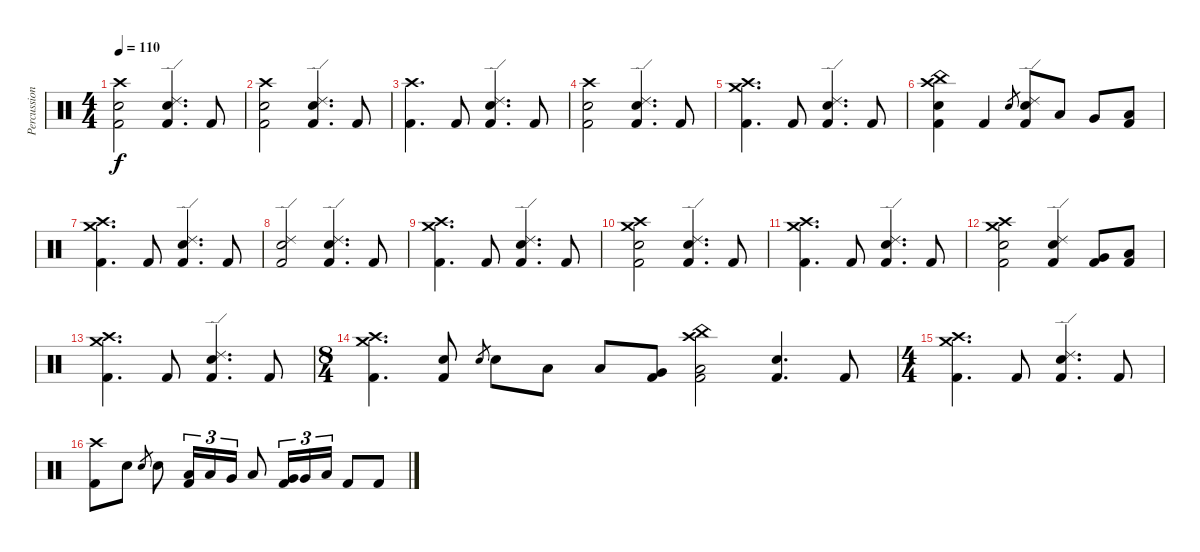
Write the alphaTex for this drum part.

\track ("Percussion" "Percussion") {instrument percussion}
\staff {score}
\articulation defaults
\ts (4 4)
\tempo 110
\clef neutral
\ks c
("Crash high (hit)" "Snare (hit) 2" "Kick (hit) 2").2{dy f} ("Ride (edge) 2" "Electric Snare (hit)" "Kick (hit) 2").4{d} "Kick (hit) 2".8 |
("Crash high (hit)" "Snare (hit) 2" "Kick (hit) 2").2 ("Ride (edge) 2" "Electric Snare (hit)" "Kick (hit) 2").4{d} "Kick (hit) 2".8 |
("Crash high (hit)" "Kick (hit) 2").4{d} "Kick (hit) 2".8 ("Ride (edge) 2" "Electric Snare (hit)" "Kick (hit) 2").4{d} "Kick (hit) 2".8 |
("Crash high (hit)" "Snare (hit) 2" "Kick (hit) 2").2 ("Ride (edge) 2" "Electric Snare (hit)" "Kick (hit) 2").4{d} "Kick (hit) 2".8 |
("Crash high (hit)" "Crash medium (hit)" "Kick (hit) 2").4{d} "Kick (hit) 2".8 ("Ride (edge) 2" "Electric Snare (hit)" "Kick (hit) 2").4{d} "Kick (hit) 2".8 |
("Crash high (hit)" "China (hit)" "Snare (hit) 2" "Kick (hit) 2").4 "Kick (hit) 2".4 "Electric Snare (hit)".8{gr} ("Ride (edge) 2" "Electric Snare (hit)" "Kick (hit) 2").8 "Low Tom (hit)".8 "Very Low Tom (hit)".8 ("Low Floor Tom (hit)" "Kick (hit) 2").8 |
("Crash high (hit)" "Crash medium (hit)" "Kick (hit) 2").4{d} "Kick (hit) 2".8 ("Ride (edge) 2" "Electric Snare (hit)" "Kick (hit) 2").4{d} "Kick (hit) 2".8 |
("Ride (edge) 2" "Electric Snare (hit)" "Kick (hit) 2").2 ("Ride (edge) 2" "Electric Snare (hit)" "Kick (hit) 2").4{d} "Kick (hit) 2".8 |
("Crash high (hit)" "Crash medium (hit)" "Kick (hit) 2").4{d} "Kick (hit) 2".8 ("Ride (edge) 2" "Electric Snare (hit)" "Kick (hit) 2").4{d} "Kick (hit) 2".8 |
("Crash high (hit)" "Crash medium (hit)" "Snare (hit) 2" "Kick (hit) 2").2 ("Ride (edge) 2" "Electric Snare (hit)" "Kick (hit) 2").4{d} "Kick (hit) 2".8 |
("Crash high (hit)" "Crash medium (hit)" "Kick (hit) 2").4{d} "Kick (hit) 2".8 ("Ride (edge) 2" "Electric Snare (hit)" "Kick (hit) 2").4{d} "Kick (hit) 2".8 |
("Crash high (hit)" "Crash medium (hit)" "Snare (hit) 2" "Kick (hit) 2").2 ("Ride (edge) 2" "Electric Snare (hit)" "Kick (hit) 2").4 ("Very Low Tom (hit)" "Kick (hit) 2").8 ("Low Floor Tom (hit)" "Kick (hit) 2").8 |
("Crash high (hit)" "Crash medium (hit)" "Kick (hit) 2").4{d} "Kick (hit) 2".8 ("Ride (edge) 2" "Electric Snare (hit)" "Kick (hit) 2").4{d} "Kick (hit) 2".8 |
\ts (8 4)
("Crash high (hit)" "Crash medium (hit)" "Kick (hit) 2").4{d} ("Electric Snare (hit)" "Kick (hit) 2").8 "Electric Snare (hit)".8{gr} "Electric Snare (hit)".8 "Low Tom (hit)".8 "Low Tom (hit)".8 ("Very Low Tom (hit)" "Kick (hit) 2").8 ("Crash high (hit)" "China (hit)" "Low Floor Tom (hit)" "Kick (hit) 2").2 ("Electric Snare (hit)" "Kick (hit) 2").4{d} "Kick (hit) 2".8 |
\ts (4 4)
("Crash high (hit)" "Crash medium (hit)" "Kick (hit) 2").4{d} "Kick (hit) 2".8 ("Ride (edge) 2" "Electric Snare (hit)" "Kick (hit) 2").4{d} "Kick (hit) 2".8 |
("Crash high (hit)" "Kick (hit) 2").8 "Electric Snare (hit)".8 "Electric Snare (hit)".8{gr} "Electric Snare (hit)".8 ("Low Tom (hit)" "Kick (hit) 2").16{tu (3 2)} "Low Tom (hit)".16{tu (3 2)} "Very Low Tom (hit)".16{tu (3 2)} "Low Floor Tom (hit)".8 ("Very Low Tom (hit)" "Kick (hit) 2").16{tu (3 2)} "Very Low Tom (hit)".16{tu (3 2)} "Low Floor Tom (hit)".16{tu (3 2)} "Kick (hit) 2".8 "Kick (hit) 2".8
